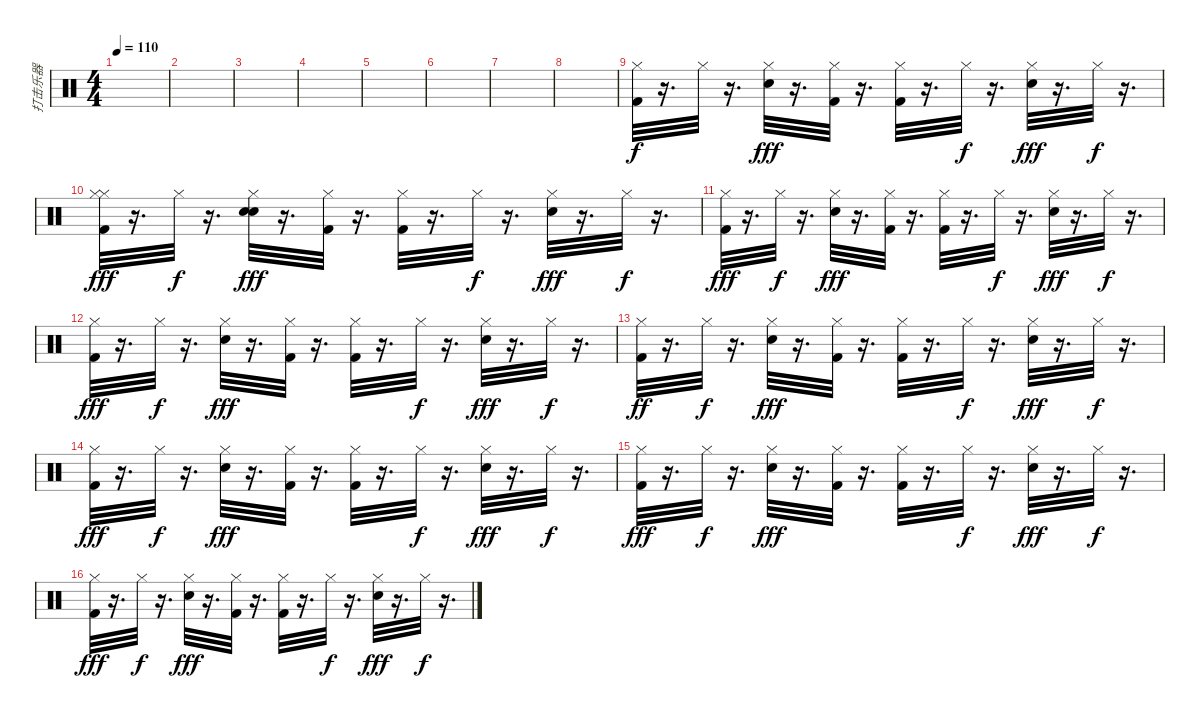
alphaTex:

\track ("打击乐器" "打击乐器") {instrument percussion}
\staff {score}
\articulation defaults
\ts (4 4)
\tempo 110
\clef neutral
\ks c
|
|
|
|
|
|
|
|
("Kick (hit) 2" "Hi-Hat (closed)").32 r.16{d} "Hi-Hat (closed)".32{dy f} r.16{d} ("Hi-Hat (closed)" "Electric Snare (hit)").32{dy fff} r.16{d} ("Kick (hit) 2" "Hi-Hat (closed)").32 r.16{d} ("Kick (hit) 2" "Hi-Hat (closed)").32 r.16{d} "Hi-Hat (closed)".32{dy f} r.16{d} ("Hi-Hat (closed)" "Electric Snare (hit)").32{dy fff} r.16{d} "Hi-Hat (closed)".32{dy f} r.16{d} |
("Kick (hit) 2" "Hi-Hat (closed)" "Hi-Hat (closed)").32{dy fff} r.16{d} "Hi-Hat (closed)".32{dy f} r.16{d} ("Hi-Hat (closed)" "Electric Snare (hit)" "Hand Clap (hit)").32{dy fff} r.16{d} ("Kick (hit) 2" "Hi-Hat (closed)").32 r.16{d} ("Kick (hit) 2" "Hi-Hat (closed)").32 r.16{d} "Hi-Hat (closed)".32{dy f} r.16{d} ("Hi-Hat (closed)" "Electric Snare (hit)").32{dy fff} r.16{d} "Hi-Hat (closed)".32{dy f} r.16{d} |
("Kick (hit) 2" "Hi-Hat (closed)").32{dy fff} r.16{d} "Hi-Hat (closed)".32{dy f} r.16{d} ("Hi-Hat (closed)" "Electric Snare (hit)").32{dy fff} r.16{d} ("Kick (hit) 2" "Hi-Hat (closed)").32 r.16{d} ("Kick (hit) 2" "Hi-Hat (closed)").32 r.16{d} "Hi-Hat (closed)".32{dy f} r.16{d} ("Hi-Hat (closed)" "Electric Snare (hit)").32{dy fff} r.16{d} "Hi-Hat (closed)".32{dy f} r.16{d} |
("Kick (hit) 2" "Hi-Hat (closed)").32{dy fff} r.16{d} "Hi-Hat (closed)".32{dy f} r.16{d} ("Hi-Hat (closed)" "Electric Snare (hit)").32{dy fff} r.16{d} ("Kick (hit) 2" "Hi-Hat (closed)").32 r.16{d} ("Kick (hit) 2" "Hi-Hat (closed)").32 r.16{d} "Hi-Hat (closed)".32{dy f} r.16{d} ("Hi-Hat (closed)" "Electric Snare (hit)").32{dy fff} r.16{d} "Hi-Hat (closed)".32{dy f} r.16{d} |
("Kick (hit) 2" "Hi-Hat (closed)").32{dy ff} r.16{d} "Hi-Hat (closed)".32{dy f} r.16{d} ("Hi-Hat (closed)" "Electric Snare (hit)").32{dy fff} r.16{d} ("Kick (hit) 2" "Hi-Hat (closed)").32 r.16{d} ("Kick (hit) 2" "Hi-Hat (closed)").32 r.16{d} "Hi-Hat (closed)".32{dy f} r.16{d} ("Hi-Hat (closed)" "Electric Snare (hit)").32{dy fff} r.16{d} "Hi-Hat (closed)".32{dy f} r.16{d} |
("Kick (hit) 2" "Hi-Hat (closed)").32{dy fff} r.16{d} "Hi-Hat (closed)".32{dy f} r.16{d} ("Hi-Hat (closed)" "Electric Snare (hit)").32{dy fff} r.16{d} ("Kick (hit) 2" "Hi-Hat (closed)").32 r.16{d} ("Kick (hit) 2" "Hi-Hat (closed)").32 r.16{d} "Hi-Hat (closed)".32{dy f} r.16{d} ("Hi-Hat (closed)" "Electric Snare (hit)").32{dy fff} r.16{d} "Hi-Hat (closed)".32{dy f} r.16{d} |
("Kick (hit) 2" "Hi-Hat (closed)").32{dy fff} r.16{d} "Hi-Hat (closed)".32{dy f} r.16{d} ("Hi-Hat (closed)" "Electric Snare (hit)").32{dy fff} r.16{d} ("Kick (hit) 2" "Hi-Hat (closed)").32 r.16{d} ("Kick (hit) 2" "Hi-Hat (closed)").32 r.16{d} "Hi-Hat (closed)".32{dy f} r.16{d} ("Hi-Hat (closed)" "Electric Snare (hit)").32{dy fff} r.16{d} "Hi-Hat (closed)".32{dy f} r.16{d} |
("Kick (hit) 2" "Hi-Hat (closed)").32{dy fff} r.16{d} "Hi-Hat (closed)".32{dy f} r.16{d} ("Hi-Hat (closed)" "Electric Snare (hit)").32{dy fff} r.16{d} ("Kick (hit) 2" "Hi-Hat (closed)").32 r.16{d} ("Kick (hit) 2" "Hi-Hat (closed)").32 r.16{d} "Hi-Hat (closed)".32{dy f} r.16{d} ("Hi-Hat (closed)" "Electric Snare (hit)").32{dy fff} r.16{d} "Hi-Hat (closed)".32{dy f} r.16{d}
